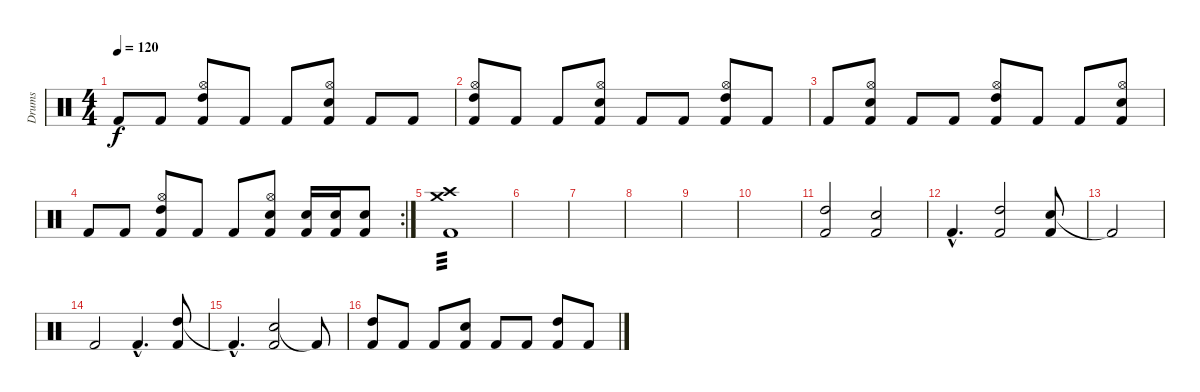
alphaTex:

\track ("Drums" "Drums") {instrument percussion}
\staff {score}
\articulation defaults
\ts (4 4)
\tempo 120
\clef neutral
\ks c "Kick (hit) 2".8{dy f} "Kick (hit) 2".8
("Hi-Hat (open)" "High Tom (hit)" "Kick (hit) 2").8 "Kick (hit) 2".8 "Kick (hit) 2".8 ("Hi-Hat (open)" "Snare (hit) 2" "Kick (hit) 2").8 "Kick (hit) 2".8 "Kick (hit) 2".8 |
("Hi-Hat (open)" "High Tom (hit)" "Kick (hit) 2").8 "Kick (hit) 2".8 "Kick (hit) 2".8 ("Hi-Hat (open)" "Snare (hit) 2" "Kick (hit) 2").8 "Kick (hit) 2".8 "Kick (hit) 2".8 ("Hi-Hat (open)" "High Tom (hit)" "Kick (hit) 2").8 "Kick (hit) 2".8 |
"Kick (hit) 2".8 ("Hi-Hat (open)" "Snare (hit) 2" "Kick (hit) 2").8 "Kick (hit) 2".8 "Kick (hit) 2".8 ("Hi-Hat (open)" "High Tom (hit)" "Kick (hit) 2").8 "Kick (hit) 2".8 "Kick (hit) 2".8 ("Hi-Hat (open)" "Snare (hit) 2" "Kick (hit) 2").8 |
\rc 2 "Kick (hit) 2".8 "Kick (hit) 2".8
("Hi-Hat (open)" "High Tom (hit)" "Kick (hit) 2").8 "Kick (hit) 2".8 "Kick (hit) 2".8 ("Hi-Hat (open)" "Snare (hit) 2" "Kick (hit) 2").8 ("Snare (hit) 2" "Kick (hit) 2").16 ("Snare (hit) 2" "Kick (hit) 2").16 ("Snare (hit) 2" "Kick (hit) 2").8 |
("Crash high (hit)" "Crash medium (hit)" "Kick (hit) 2").1{tp 3} |
|
|
|
|
|
("High Tom (hit)" "Kick (hit) 2").2 ("Snare (hit) 2" "Kick (hit) 2").2 |
"Kick (hit) 2"{hac}.4{d} ("High Tom (hit)" "Kick (hit) 2").2 ("Snare (hit) 2" "Kick (hit) 2").8 |
"Kick (hit) 2"{t}.2 |
"Kick (hit) 2".2 "Kick (hit) 2"{hac}.4{d} ("High Tom (hit)" "Kick (hit) 2").8 |
"Kick (hit) 2"{hac t}.4{d} ("Snare (hit) 2" "Kick (hit) 2").2 "Kick (hit) 2"{t}.8 |
("High Tom (hit)" "Kick (hit) 2").8 "Kick (hit) 2".8 "Kick (hit) 2".8 ("Snare (hit) 2" "Kick (hit) 2").8 "Kick (hit) 2".8 "Kick (hit) 2".8 ("High Tom (hit)" "Kick (hit) 2").8 "Kick (hit) 2".8
